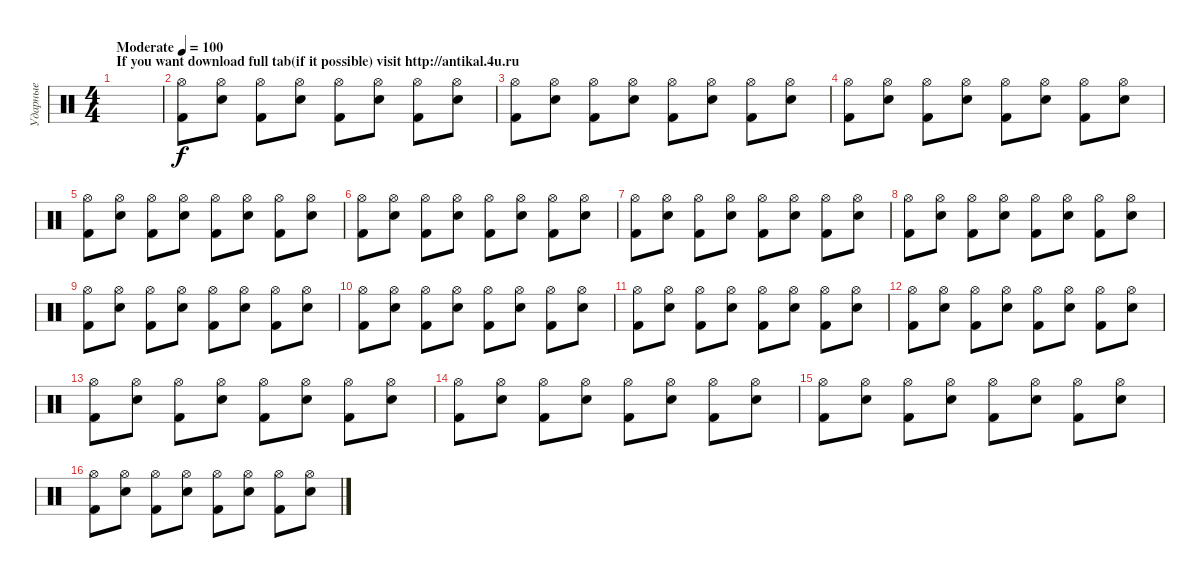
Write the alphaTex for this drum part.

\track ("Ударные" "Ударные") {instrument percussion}
\staff {score}
\articulation defaults
\ts (4 4)
\section ("" "If you want download full tab(if it possible) visit http://antikal.4u.ru")
\tempo (100 "Moderate")
\clef neutral
\ks c
|
("Hi-Hat (open)" "Kick (hit) 2").8 ("Hi-Hat (open)" "Electric Snare (hit)").8 ("Hi-Hat (open)" "Kick (hit) 2").8 ("Hi-Hat (open)" "Electric Snare (hit)").8 ("Hi-Hat (open)" "Kick (hit) 2").8 ("Hi-Hat (open)" "Electric Snare (hit)").8 ("Hi-Hat (open)" "Kick (hit) 2").8 ("Hi-Hat (open)" "Electric Snare (hit)").8 |
("Hi-Hat (open)" "Kick (hit) 2").8 ("Hi-Hat (open)" "Electric Snare (hit)").8 ("Hi-Hat (open)" "Kick (hit) 2").8 ("Hi-Hat (open)" "Electric Snare (hit)").8 ("Hi-Hat (open)" "Kick (hit) 2").8 ("Hi-Hat (open)" "Electric Snare (hit)").8 ("Hi-Hat (open)" "Kick (hit) 2").8 ("Hi-Hat (open)" "Electric Snare (hit)").8 |
("Hi-Hat (open)" "Kick (hit) 2").8 ("Hi-Hat (open)" "Electric Snare (hit)").8 ("Hi-Hat (open)" "Kick (hit) 2").8 ("Hi-Hat (open)" "Electric Snare (hit)").8 ("Hi-Hat (open)" "Kick (hit) 2").8 ("Hi-Hat (open)" "Electric Snare (hit)").8 ("Hi-Hat (open)" "Kick (hit) 2").8 ("Hi-Hat (open)" "Electric Snare (hit)").8 |
("Hi-Hat (open)" "Kick (hit) 2").8 ("Hi-Hat (open)" "Electric Snare (hit)").8 ("Hi-Hat (open)" "Kick (hit) 2").8 ("Hi-Hat (open)" "Electric Snare (hit)").8 ("Hi-Hat (open)" "Kick (hit) 2").8 ("Hi-Hat (open)" "Electric Snare (hit)").8 ("Hi-Hat (open)" "Kick (hit) 2").8 ("Hi-Hat (open)" "Electric Snare (hit)").8 |
("Hi-Hat (open)" "Kick (hit) 2").8 ("Hi-Hat (open)" "Electric Snare (hit)").8 ("Hi-Hat (open)" "Kick (hit) 2").8 ("Hi-Hat (open)" "Electric Snare (hit)").8 ("Hi-Hat (open)" "Kick (hit) 2").8 ("Hi-Hat (open)" "Electric Snare (hit)").8 ("Hi-Hat (open)" "Kick (hit) 2").8 ("Hi-Hat (open)" "Electric Snare (hit)").8 |
("Hi-Hat (open)" "Kick (hit) 2").8 ("Hi-Hat (open)" "Electric Snare (hit)").8 ("Hi-Hat (open)" "Kick (hit) 2").8 ("Hi-Hat (open)" "Electric Snare (hit)").8 ("Hi-Hat (open)" "Kick (hit) 2").8 ("Hi-Hat (open)" "Electric Snare (hit)").8 ("Hi-Hat (open)" "Kick (hit) 2").8 ("Hi-Hat (open)" "Electric Snare (hit)").8 |
("Hi-Hat (open)" "Kick (hit) 2").8 ("Hi-Hat (open)" "Electric Snare (hit)").8 ("Hi-Hat (open)" "Kick (hit) 2").8 ("Hi-Hat (open)" "Electric Snare (hit)").8 ("Hi-Hat (open)" "Kick (hit) 2").8 ("Hi-Hat (open)" "Electric Snare (hit)").8 ("Hi-Hat (open)" "Kick (hit) 2").8 ("Hi-Hat (open)" "Electric Snare (hit)").8 |
("Hi-Hat (open)" "Kick (hit) 2").8 ("Hi-Hat (open)" "Electric Snare (hit)").8 ("Hi-Hat (open)" "Kick (hit) 2").8 ("Hi-Hat (open)" "Electric Snare (hit)").8 ("Hi-Hat (open)" "Kick (hit) 2").8 ("Hi-Hat (open)" "Electric Snare (hit)").8 ("Hi-Hat (open)" "Kick (hit) 2").8 ("Hi-Hat (open)" "Electric Snare (hit)").8 |
("Hi-Hat (open)" "Kick (hit) 2").8 ("Hi-Hat (open)" "Electric Snare (hit)").8 ("Hi-Hat (open)" "Kick (hit) 2").8 ("Hi-Hat (open)" "Electric Snare (hit)").8 ("Hi-Hat (open)" "Kick (hit) 2").8 ("Hi-Hat (open)" "Electric Snare (hit)").8 ("Hi-Hat (open)" "Kick (hit) 2").8 ("Hi-Hat (open)" "Electric Snare (hit)").8 |
("Hi-Hat (open)" "Kick (hit) 2").8 ("Hi-Hat (open)" "Electric Snare (hit)").8 ("Hi-Hat (open)" "Kick (hit) 2").8 ("Hi-Hat (open)" "Electric Snare (hit)").8 ("Hi-Hat (open)" "Kick (hit) 2").8 ("Hi-Hat (open)" "Electric Snare (hit)").8 ("Hi-Hat (open)" "Kick (hit) 2").8 ("Hi-Hat (open)" "Electric Snare (hit)").8 |
("Hi-Hat (open)" "Kick (hit) 2").8 ("Hi-Hat (open)" "Electric Snare (hit)").8 ("Hi-Hat (open)" "Kick (hit) 2").8 ("Hi-Hat (open)" "Electric Snare (hit)").8 ("Hi-Hat (open)" "Kick (hit) 2").8 ("Hi-Hat (open)" "Electric Snare (hit)").8 ("Hi-Hat (open)" "Kick (hit) 2").8 ("Hi-Hat (open)" "Electric Snare (hit)").8 |
("Hi-Hat (open)" "Kick (hit) 2").8 ("Hi-Hat (open)" "Electric Snare (hit)").8 ("Hi-Hat (open)" "Kick (hit) 2").8 ("Hi-Hat (open)" "Electric Snare (hit)").8 ("Hi-Hat (open)" "Kick (hit) 2").8 ("Hi-Hat (open)" "Electric Snare (hit)").8 ("Hi-Hat (open)" "Kick (hit) 2").8 ("Hi-Hat (open)" "Electric Snare (hit)").8 |
("Hi-Hat (open)" "Kick (hit) 2").8 ("Hi-Hat (open)" "Electric Snare (hit)").8 ("Hi-Hat (open)" "Kick (hit) 2").8 ("Hi-Hat (open)" "Electric Snare (hit)").8 ("Hi-Hat (open)" "Kick (hit) 2").8 ("Hi-Hat (open)" "Electric Snare (hit)").8 ("Hi-Hat (open)" "Kick (hit) 2").8 ("Hi-Hat (open)" "Electric Snare (hit)").8 |
("Hi-Hat (open)" "Kick (hit) 2").8 ("Hi-Hat (open)" "Electric Snare (hit)").8 ("Hi-Hat (open)" "Kick (hit) 2").8 ("Hi-Hat (open)" "Electric Snare (hit)").8 ("Hi-Hat (open)" "Kick (hit) 2").8 ("Hi-Hat (open)" "Electric Snare (hit)").8 ("Hi-Hat (open)" "Kick (hit) 2").8 ("Hi-Hat (open)" "Electric Snare (hit)").8 |
("Hi-Hat (open)" "Kick (hit) 2").8 ("Hi-Hat (open)" "Electric Snare (hit)").8 ("Hi-Hat (open)" "Kick (hit) 2").8 ("Hi-Hat (open)" "Electric Snare (hit)").8 ("Hi-Hat (open)" "Kick (hit) 2").8 ("Hi-Hat (open)" "Electric Snare (hit)").8 ("Hi-Hat (open)" "Kick (hit) 2").8 ("Hi-Hat (open)" "Electric Snare (hit)").8
